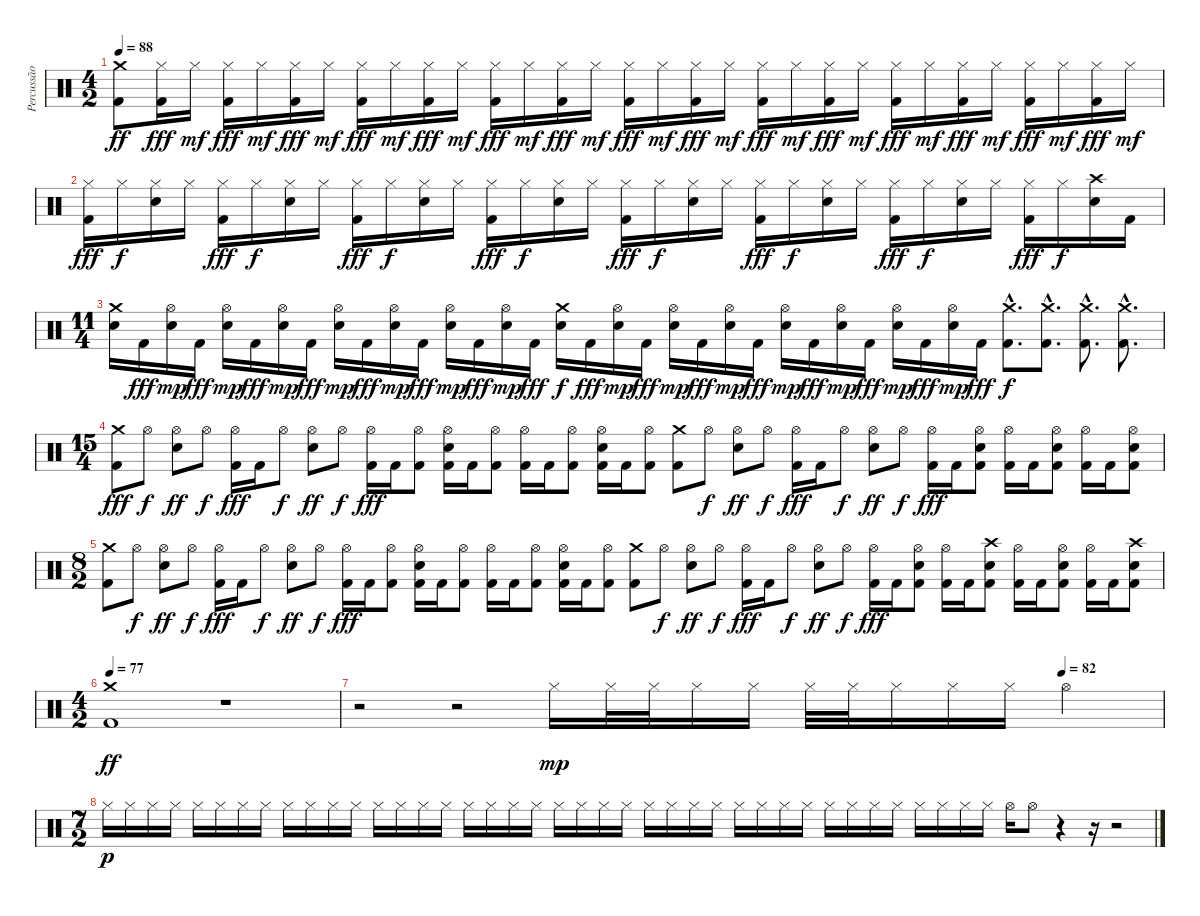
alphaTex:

\track ("Percussão" "Percussão") {instrument percussion}
\staff {score}
\articulation defaults
\ts (4 2)
\tempo 88
\clef neutral
\ks c
("Crash medium (hit)" "Kick (hit) 2").8{dy ff} ("Hi-Hat (closed)" "Kick (hit) 2").16{dy fff} "Hi-Hat (closed)".16{dy mf} ("Hi-Hat (closed)" "Kick (hit) 2").16{dy fff} "Hi-Hat (closed)".16{dy mf} ("Hi-Hat (closed)" "Kick (hit) 2").16{dy fff} "Hi-Hat (closed)".16{dy mf} ("Hi-Hat (closed)" "Kick (hit) 2").16{dy fff} "Hi-Hat (closed)".16{dy mf} ("Hi-Hat (closed)" "Kick (hit) 2").16{dy fff} "Hi-Hat (closed)".16{dy mf} ("Hi-Hat (closed)" "Kick (hit) 2").16{dy fff} "Hi-Hat (closed)".16{dy mf} ("Hi-Hat (closed)" "Kick (hit) 2").16{dy fff} "Hi-Hat (closed)".16{dy mf} ("Hi-Hat (closed)" "Kick (hit) 2").16{dy fff} "Hi-Hat (closed)".16{dy mf} ("Hi-Hat (closed)" "Kick (hit) 2").16{dy fff} "Hi-Hat (closed)".16{dy mf} ("Hi-Hat (closed)" "Kick (hit) 2").16{dy fff} "Hi-Hat (closed)".16{dy mf} ("Hi-Hat (closed)" "Kick (hit) 2").16{dy fff} "Hi-Hat (closed)".16{dy mf} ("Hi-Hat (closed)" "Kick (hit) 2").16{dy fff} "Hi-Hat (closed)".16{dy mf} ("Hi-Hat (closed)" "Kick (hit) 2").16{dy fff} "Hi-Hat (closed)".16{dy mf} ("Hi-Hat (closed)" "Kick (hit) 2").16{dy fff} "Hi-Hat (closed)".16{dy mf} ("Hi-Hat (closed)" "Kick (hit) 2").16{dy fff} "Hi-Hat (closed)".16{dy mf} |
("Hi-Hat (closed)" "Kick (hit) 2").16{dy fff} "Hi-Hat (closed)".16{dy f} ("Hi-Hat (closed)" "Snare (hit) 2").16 "Hi-Hat (closed)".16 ("Hi-Hat (closed)" "Kick (hit) 2").16{dy fff} "Hi-Hat (closed)".16{dy f} ("Hi-Hat (closed)" "Snare (hit) 2").16 "Hi-Hat (closed)".16 ("Hi-Hat (closed)" "Kick (hit) 2").16{dy fff} "Hi-Hat (closed)".16{dy f} ("Hi-Hat (closed)" "Snare (hit) 2").16 "Hi-Hat (closed)".16 ("Hi-Hat (closed)" "Kick (hit) 2").16{dy fff} "Hi-Hat (closed)".16{dy f} ("Hi-Hat (closed)" "Snare (hit) 2").16 "Hi-Hat (closed)".16 ("Hi-Hat (closed)" "Kick (hit) 2").16{dy fff} "Hi-Hat (closed)".16{dy f} ("Hi-Hat (closed)" "Snare (hit) 2").16 "Hi-Hat (closed)".16 ("Hi-Hat (closed)" "Kick (hit) 2").16{dy fff} "Hi-Hat (closed)".16{dy f} ("Hi-Hat (closed)" "Snare (hit) 2").16 "Hi-Hat (closed)".16 ("Hi-Hat (closed)" "Kick (hit) 2").16{dy fff} "Hi-Hat (closed)".16{dy f} ("Hi-Hat (closed)" "Snare (hit) 2").16 "Hi-Hat (closed)".16 ("Hi-Hat (closed)" "Kick (hit) 2").16{dy fff} "Hi-Hat (closed)".16{dy f} ("Crash high (hit)" "Snare (hit) 2").16 "Kick (hit) 2".16 |
\ts (11 4)
("Crash medium (hit)" "Snare (hit) 2").16 "Kick (hit) 2".16{dy fff} ("Hi-Hat (open)" "Snare (hit) 2").16{dy mp} "Kick (hit) 2".16{dy fff} ("Hi-Hat (open)" "Snare (hit) 2").16{dy mp} "Kick (hit) 2".16{dy fff} ("Hi-Hat (open)" "Snare (hit) 2").16{dy mp} "Kick (hit) 2".16{dy fff} ("Hi-Hat (open)" "Snare (hit) 2").16{dy mp} "Kick (hit) 2".16{dy fff} ("Hi-Hat (open)" "Snare (hit) 2").16{dy mp} "Kick (hit) 2".16{dy fff} ("Hi-Hat (open)" "Snare (hit) 2").16{dy mp} "Kick (hit) 2".16{dy fff} ("Hi-Hat (open)" "Snare (hit) 2").16{dy mp} "Kick (hit) 2".16{dy fff} ("Crash medium (hit)" "Snare (hit) 2").16{dy f} "Kick (hit) 2".16{dy fff} ("Hi-Hat (open)" "Snare (hit) 2").16{dy mp} "Kick (hit) 2".16{dy fff} ("Hi-Hat (open)" "Snare (hit) 2").16{dy mp} "Kick (hit) 2".16{dy fff} ("Hi-Hat (open)" "Snare (hit) 2").16{dy mp} "Kick (hit) 2".16{dy fff} ("Hi-Hat (open)" "Snare (hit) 2").16{dy mp} "Kick (hit) 2".16{dy fff} ("Hi-Hat (open)" "Snare (hit) 2").16{dy mp} "Kick (hit) 2".16{dy fff} ("Hi-Hat (open)" "Snare (hit) 2").16{dy mp} "Kick (hit) 2".16{dy fff} ("Hi-Hat (open)" "Snare (hit) 2").16{dy mp} "Kick (hit) 2".16{dy fff} ("Crash medium (hit)"{hac} "Kick (hit) 2"{hac}).8{d dy f} ("Crash medium (hit)"{hac} "Kick (hit) 2"{hac}).8{d} ("Crash medium (hit)"{hac} "Kick (hit) 2"{hac}).8{d} ("Crash medium (hit)"{hac} "Kick (hit) 2"{hac}).8{d} |
\ts (15 4)
("Crash medium (hit)" "Kick (hit) 2").8{dy fff} "Hi-Hat (open)".8{dy f} ("Hi-Hat (open)" "Snare (hit) 2").8{dy ff} "Hi-Hat (open)".8{dy f} ("Hi-Hat (open)" "Kick (hit) 2").16{dy fff} "Kick (hit) 2".16 "Hi-Hat (open)".8{dy f} ("Hi-Hat (open)" "Snare (hit) 2").8{dy ff} "Hi-Hat (open)".8{dy f} ("Hi-Hat (open)" "Kick (hit) 2").16{dy fff} "Kick (hit) 2".16 ("Hi-Hat (open)" "Kick (hit) 2").8 ("Hi-Hat (open)" "Snare (hit) 2" "Kick (hit) 2").16 "Kick (hit) 2".16 ("Hi-Hat (open)" "Kick (hit) 2").8 ("Hi-Hat (open)" "Kick (hit) 2").16 "Kick (hit) 2".16 ("Hi-Hat (open)" "Kick (hit) 2").8 ("Hi-Hat (open)" "Snare (hit) 2" "Kick (hit) 2").16 "Kick (hit) 2".16 ("Hi-Hat (open)" "Kick (hit) 2").8 ("Crash medium (hit)" "Kick (hit) 2").8 "Hi-Hat (open)".8{dy f} ("Hi-Hat (open)" "Snare (hit) 2").8{dy ff} "Hi-Hat (open)".8{dy f} ("Hi-Hat (open)" "Kick (hit) 2").16{dy fff} "Kick (hit) 2".16 "Hi-Hat (open)".8{dy f} ("Hi-Hat (open)" "Snare (hit) 2").8{dy ff} "Hi-Hat (open)".8{dy f} ("Hi-Hat (open)" "Kick (hit) 2").16{dy fff} "Kick (hit) 2".16 ("Hi-Hat (open)" "Snare (hit) 2" "Kick (hit) 2").8 ("Hi-Hat (open)" "Kick (hit) 2").16 "Kick (hit) 2".16 ("Hi-Hat (open)" "Snare (hit) 2" "Kick (hit) 2").8 ("Hi-Hat (open)" "Kick (hit) 2").16 "Kick (hit) 2".16 ("Hi-Hat (open)" "Snare (hit) 2" "Kick (hit) 2").8 |
\ts (8 2)
("Crash medium (hit)" "Kick (hit) 2").8 "Hi-Hat (open)".8{dy f} ("Hi-Hat (open)" "Snare (hit) 2").8{dy ff} "Hi-Hat (open)".8{dy f} ("Hi-Hat (open)" "Kick (hit) 2").16{dy fff} "Kick (hit) 2".16 "Hi-Hat (open)".8{dy f} ("Hi-Hat (open)" "Snare (hit) 2").8{dy ff} "Hi-Hat (open)".8{dy f} ("Hi-Hat (open)" "Kick (hit) 2").16{dy fff} "Kick (hit) 2".16 ("Hi-Hat (open)" "Kick (hit) 2").8 ("Hi-Hat (open)" "Snare (hit) 2" "Kick (hit) 2").16 "Kick (hit) 2".16 ("Hi-Hat (open)" "Kick (hit) 2").8 ("Hi-Hat (open)" "Kick (hit) 2").16 "Kick (hit) 2".16 ("Hi-Hat (open)" "Kick (hit) 2").8 ("Hi-Hat (open)" "Snare (hit) 2" "Kick (hit) 2").16 "Kick (hit) 2".16 ("Hi-Hat (open)" "Kick (hit) 2").8 ("Crash medium (hit)" "Kick (hit) 2").8 "Hi-Hat (open)".8{dy f} ("Hi-Hat (open)" "Snare (hit) 2").8{dy ff} "Hi-Hat (open)".8{dy f} ("Hi-Hat (open)" "Kick (hit) 2").16{dy fff} "Kick (hit) 2".16 "Hi-Hat (open)".8{dy f} ("Hi-Hat (open)" "Snare (hit) 2").8{dy ff} "Hi-Hat (open)".8{dy f} ("Hi-Hat (open)" "Kick (hit) 2").16{dy fff} "Kick (hit) 2".16 ("Hi-Hat (open)" "Snare (hit) 2" "Kick (hit) 2").8 ("Hi-Hat (open)" "Kick (hit) 2").16 "Kick (hit) 2".16 ("Crash high (hit)" "Snare (hit) 2" "Kick (hit) 2").8 ("Hi-Hat (open)" "Kick (hit) 2").16 "Kick (hit) 2".16 ("Hi-Hat (open)" "Snare (hit) 2" "Kick (hit) 2").8 ("Hi-Hat (open)" "Kick (hit) 2").16 "Kick (hit) 2".16 ("Crash high (hit)" "Snare (hit) 2" "Kick (hit) 2").8 |
\ts (4 2)
\tempo 77
("Crash medium (hit)" "Kick (hit) 2").1{dy ff} r.1 |
\tempo (82 0.875)
r.2 r.2 "Hi-Hat (closed)".16{dy mp} "Hi-Hat (closed)".32 "Hi-Hat (closed)".32 "Hi-Hat (closed)".16 "Hi-Hat (closed)".16 "Hi-Hat (closed)".32 "Hi-Hat (closed)".32 "Hi-Hat (closed)".16 "Hi-Hat (closed)".16 "Hi-Hat (closed)".16 "Hi-Hat (open)".2 |
\ts (7 2)
"Hi-Hat (closed)".16{dy p} "Hi-Hat (closed)".16 "Hi-Hat (closed)".16 "Hi-Hat (closed)".16 "Hi-Hat (closed)".16 "Hi-Hat (closed)".16 "Hi-Hat (closed)".16 "Hi-Hat (closed)".16 "Hi-Hat (closed)".16 "Hi-Hat (closed)".16 "Hi-Hat (closed)".16 "Hi-Hat (closed)".16 "Hi-Hat (closed)".16 "Hi-Hat (closed)".16 "Hi-Hat (closed)".16 "Hi-Hat (closed)".16 "Hi-Hat (closed)".16 "Hi-Hat (closed)".16 "Hi-Hat (closed)".16 "Hi-Hat (closed)".16 "Hi-Hat (closed)".16 "Hi-Hat (closed)".16 "Hi-Hat (closed)".16 "Hi-Hat (closed)".16 "Hi-Hat (closed)".16 "Hi-Hat (closed)".16 "Hi-Hat (closed)".16 "Hi-Hat (closed)".16 "Hi-Hat (closed)".16 "Hi-Hat (closed)".16 "Hi-Hat (closed)".16 "Hi-Hat (closed)".16 "Hi-Hat (closed)".16 "Hi-Hat (closed)".16 "Hi-Hat (closed)".16 "Hi-Hat (closed)".16 "Hi-Hat (closed)".16 "Hi-Hat (closed)".16 "Hi-Hat (closed)".16 "Hi-Hat (closed)".16 "Hi-Hat (open)".16 "Hi-Hat (open)".8 r.4 r.16 r.2
